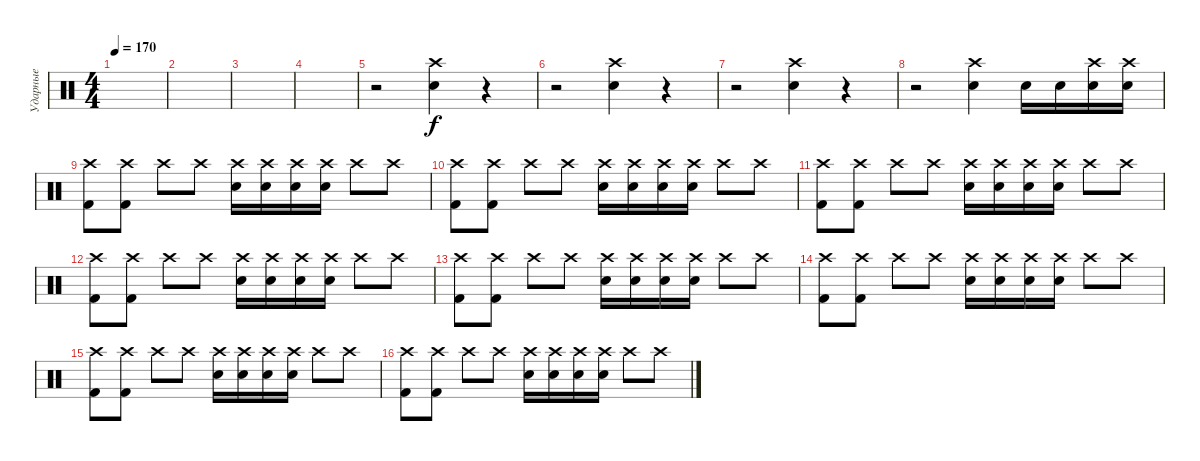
\track ("Ударные" "Ударные") {instrument percussion}
\staff {score}
\articulation defaults
\ts (4 4)
\tempo 170
\clef neutral
\ks c
|
|
|
|
r.2 ("Crash high (hit)" "Snare (hit) 2").4 r.4 |
r.2 ("Crash high (hit)" "Snare (hit) 2").4 r.4 |
r.2 ("Crash high (hit)" "Snare (hit) 2").4 r.4 |
r.2 ("Crash high (hit)" "Snare (hit) 2").4 "Electric Snare (hit)".16 "Electric Snare (hit)".16 ("Electric Snare (hit)" "Crash high (hit)").16 ("Electric Snare (hit)" "Crash high (hit)").16 |
("Crash high (hit)" "Kick (hit) 2").8 ("Crash high (hit)" "Kick (hit) 2").8 "Crash high (hit)".8 "Crash high (hit)".8 ("Crash high (hit)" "Electric Snare (hit)").16 ("Crash high (hit)" "Electric Snare (hit)").16 ("Crash high (hit)" "Electric Snare (hit)").16 ("Crash high (hit)" "Electric Snare (hit)").16 "Crash high (hit)".8 "Crash high (hit)".8 |
("Crash high (hit)" "Kick (hit) 2").8 ("Crash high (hit)" "Kick (hit) 2").8 "Crash high (hit)".8 "Crash high (hit)".8 ("Crash high (hit)" "Electric Snare (hit)").16 ("Crash high (hit)" "Electric Snare (hit)").16 ("Crash high (hit)" "Electric Snare (hit)").16 ("Crash high (hit)" "Electric Snare (hit)").16 "Crash high (hit)".8 "Crash high (hit)".8 |
("Crash high (hit)" "Kick (hit) 2").8 ("Crash high (hit)" "Kick (hit) 2").8 "Crash high (hit)".8 "Crash high (hit)".8 ("Crash high (hit)" "Electric Snare (hit)").16 ("Crash high (hit)" "Electric Snare (hit)").16 ("Crash high (hit)" "Electric Snare (hit)").16 ("Crash high (hit)" "Electric Snare (hit)").16 "Crash high (hit)".8 "Crash high (hit)".8 |
("Crash high (hit)" "Kick (hit) 2").8 ("Crash high (hit)" "Kick (hit) 2").8 "Crash high (hit)".8 "Crash high (hit)".8 ("Crash high (hit)" "Electric Snare (hit)").16 ("Crash high (hit)" "Electric Snare (hit)").16 ("Crash high (hit)" "Electric Snare (hit)").16 ("Crash high (hit)" "Electric Snare (hit)").16 "Crash high (hit)".8 "Crash high (hit)".8 |
("Crash high (hit)" "Kick (hit) 2").8 ("Crash high (hit)" "Kick (hit) 2").8 "Crash high (hit)".8 "Crash high (hit)".8 ("Crash high (hit)" "Electric Snare (hit)").16 ("Crash high (hit)" "Electric Snare (hit)").16 ("Crash high (hit)" "Electric Snare (hit)").16 ("Crash high (hit)" "Electric Snare (hit)").16 "Crash high (hit)".8 "Crash high (hit)".8 |
("Crash high (hit)" "Kick (hit) 2").8 ("Crash high (hit)" "Kick (hit) 2").8 "Crash high (hit)".8 "Crash high (hit)".8 ("Crash high (hit)" "Electric Snare (hit)").16 ("Crash high (hit)" "Electric Snare (hit)").16 ("Crash high (hit)" "Electric Snare (hit)").16 ("Crash high (hit)" "Electric Snare (hit)").16 "Crash high (hit)".8 "Crash high (hit)".8 |
("Crash high (hit)" "Kick (hit) 2").8 ("Crash high (hit)" "Kick (hit) 2").8 "Crash high (hit)".8 "Crash high (hit)".8 ("Crash high (hit)" "Electric Snare (hit)").16 ("Crash high (hit)" "Electric Snare (hit)").16 ("Crash high (hit)" "Electric Snare (hit)").16 ("Crash high (hit)" "Electric Snare (hit)").16 "Crash high (hit)".8 "Crash high (hit)".8 |
("Crash high (hit)" "Kick (hit) 2").8 ("Crash high (hit)" "Kick (hit) 2").8 "Crash high (hit)".8 "Crash high (hit)".8 ("Crash high (hit)" "Electric Snare (hit)").16 ("Crash high (hit)" "Electric Snare (hit)").16 ("Crash high (hit)" "Electric Snare (hit)").16 ("Crash high (hit)" "Electric Snare (hit)").16 "Crash high (hit)".8 "Crash high (hit)".8
